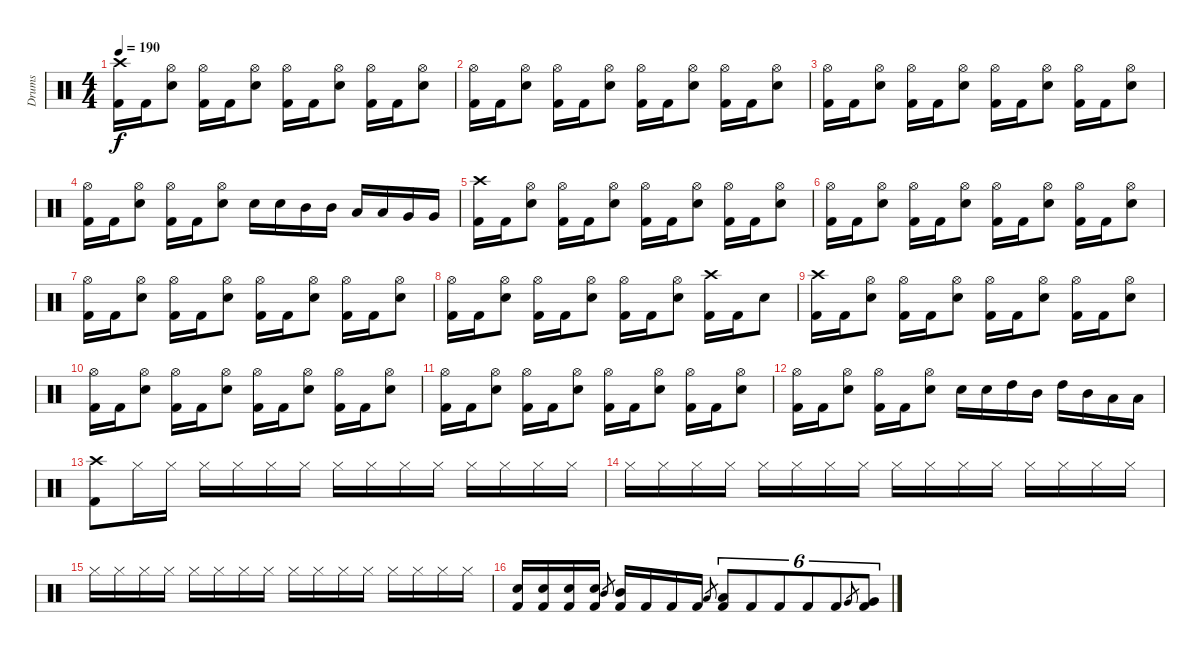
\track ("Drums" "Drums") {instrument percussion}
\staff {score}
\articulation defaults
\ts (4 4)
\tempo 190
\clef neutral
\ks c
("Crash high (hit)" "Kick (hit) 2").16{dy f} "Kick (hit) 2".16 ("Hi-Hat (open)" "Electric Snare (hit)").8 ("Hi-Hat (open)" "Kick (hit) 2").16 "Kick (hit) 2".16 ("Hi-Hat (open)" "Electric Snare (hit)").8 ("Hi-Hat (open)" "Kick (hit) 2").16 "Kick (hit) 2".16 ("Hi-Hat (open)" "Electric Snare (hit)").8 ("Hi-Hat (open)" "Kick (hit) 2").16 "Kick (hit) 2".16 ("Hi-Hat (open)" "Electric Snare (hit)").8 |
("Hi-Hat (open)" "Kick (hit) 2").16 "Kick (hit) 2".16 ("Hi-Hat (open)" "Electric Snare (hit)").8 ("Hi-Hat (open)" "Kick (hit) 2").16 "Kick (hit) 2".16 ("Hi-Hat (open)" "Electric Snare (hit)").8 ("Hi-Hat (open)" "Kick (hit) 2").16 "Kick (hit) 2".16 ("Hi-Hat (open)" "Electric Snare (hit)").8 ("Hi-Hat (open)" "Kick (hit) 2").16 "Kick (hit) 2".16 ("Hi-Hat (open)" "Electric Snare (hit)").8 |
("Hi-Hat (open)" "Kick (hit) 2").16 "Kick (hit) 2".16 ("Hi-Hat (open)" "Electric Snare (hit)").8 ("Hi-Hat (open)" "Kick (hit) 2").16 "Kick (hit) 2".16 ("Hi-Hat (open)" "Electric Snare (hit)").8 ("Hi-Hat (open)" "Kick (hit) 2").16 "Kick (hit) 2".16 ("Hi-Hat (open)" "Electric Snare (hit)").8 ("Hi-Hat (open)" "Kick (hit) 2").16 "Kick (hit) 2".16 ("Hi-Hat (open)" "Electric Snare (hit)").8 |
("Hi-Hat (open)" "Kick (hit) 2").16 "Kick (hit) 2".16 ("Hi-Hat (open)" "Electric Snare (hit)").8 ("Hi-Hat (open)" "Kick (hit) 2").16 "Kick (hit) 2".16 ("Hi-Hat (open)" "Electric Snare (hit)").8 "Electric Snare (hit)".16 "Electric Snare (hit)".16 "Mid Tom (hit)".16 "Mid Tom (hit)".16 "Low Tom (hit)".16 "Low Tom (hit)".16 "Very Low Tom (hit)".16 "Very Low Tom (hit)".16 |
("Crash high (hit)" "Kick (hit) 2").16 "Kick (hit) 2".16 ("Hi-Hat (open)" "Electric Snare (hit)").8 ("Hi-Hat (open)" "Kick (hit) 2").16 "Kick (hit) 2".16 ("Hi-Hat (open)" "Electric Snare (hit)").8 ("Hi-Hat (open)" "Kick (hit) 2").16 "Kick (hit) 2".16 ("Hi-Hat (open)" "Electric Snare (hit)").8 ("Hi-Hat (open)" "Kick (hit) 2").16 "Kick (hit) 2".16 ("Hi-Hat (open)" "Electric Snare (hit)").8 |
("Hi-Hat (open)" "Kick (hit) 2").16 "Kick (hit) 2".16 ("Hi-Hat (open)" "Electric Snare (hit)").8 ("Hi-Hat (open)" "Kick (hit) 2").16 "Kick (hit) 2".16 ("Hi-Hat (open)" "Electric Snare (hit)").8 ("Hi-Hat (open)" "Kick (hit) 2").16 "Kick (hit) 2".16 ("Hi-Hat (open)" "Electric Snare (hit)").8 ("Hi-Hat (open)" "Kick (hit) 2").16 "Kick (hit) 2".16 ("Hi-Hat (open)" "Electric Snare (hit)").8 |
("Hi-Hat (open)" "Kick (hit) 2").16 "Kick (hit) 2".16 ("Hi-Hat (open)" "Electric Snare (hit)").8 ("Hi-Hat (open)" "Kick (hit) 2").16 "Kick (hit) 2".16 ("Hi-Hat (open)" "Electric Snare (hit)").8 ("Hi-Hat (open)" "Kick (hit) 2").16 "Kick (hit) 2".16 ("Hi-Hat (open)" "Electric Snare (hit)").8 ("Hi-Hat (open)" "Kick (hit) 2").16 "Kick (hit) 2".16 ("Hi-Hat (open)" "Electric Snare (hit)").8 |
("Hi-Hat (open)" "Kick (hit) 2").16 "Kick (hit) 2".16 ("Hi-Hat (open)" "Electric Snare (hit)").8 ("Hi-Hat (open)" "Kick (hit) 2").16 "Kick (hit) 2".16 ("Hi-Hat (open)" "Electric Snare (hit)").8 ("Hi-Hat (open)" "Kick (hit) 2").16 "Kick (hit) 2".16 ("Hi-Hat (open)" "Electric Snare (hit)").8 ("Crash high (hit)" "Kick (hit) 2").16 "Kick (hit) 2".16 "Electric Snare (hit)".8 |
("Crash high (hit)" "Kick (hit) 2").16 "Kick (hit) 2".16 ("Hi-Hat (open)" "Electric Snare (hit)").8 ("Hi-Hat (open)" "Kick (hit) 2").16 "Kick (hit) 2".16 ("Hi-Hat (open)" "Electric Snare (hit)").8 ("Hi-Hat (open)" "Kick (hit) 2").16 "Kick (hit) 2".16 ("Hi-Hat (open)" "Electric Snare (hit)").8 ("Hi-Hat (open)" "Kick (hit) 2").16 "Kick (hit) 2".16 ("Hi-Hat (open)" "Electric Snare (hit)").8 |
("Hi-Hat (open)" "Kick (hit) 2").16 "Kick (hit) 2".16 ("Hi-Hat (open)" "Electric Snare (hit)").8 ("Hi-Hat (open)" "Kick (hit) 2").16 "Kick (hit) 2".16 ("Hi-Hat (open)" "Electric Snare (hit)").8 ("Hi-Hat (open)" "Kick (hit) 2").16 "Kick (hit) 2".16 ("Hi-Hat (open)" "Electric Snare (hit)").8 ("Hi-Hat (open)" "Kick (hit) 2").16 "Kick (hit) 2".16 ("Hi-Hat (open)" "Electric Snare (hit)").8 |
("Hi-Hat (open)" "Kick (hit) 2").16 "Kick (hit) 2".16 ("Hi-Hat (open)" "Electric Snare (hit)").8 ("Hi-Hat (open)" "Kick (hit) 2").16 "Kick (hit) 2".16 ("Hi-Hat (open)" "Electric Snare (hit)").8 ("Hi-Hat (open)" "Kick (hit) 2").16 "Kick (hit) 2".16 ("Hi-Hat (open)" "Electric Snare (hit)").8 ("Hi-Hat (open)" "Kick (hit) 2").16 "Kick (hit) 2".16 ("Hi-Hat (open)" "Electric Snare (hit)").8 |
("Hi-Hat (open)" "Kick (hit) 2").16 "Kick (hit) 2".16 ("Hi-Hat (open)" "Electric Snare (hit)").8 ("Hi-Hat (open)" "Kick (hit) 2").16 "Kick (hit) 2".16 ("Hi-Hat (open)" "Electric Snare (hit)").8 "Electric Snare (hit)".16 "Electric Snare (hit)".16 "High Tom (hit)".16 "Mid Tom (hit)".16 "High Tom (hit)".16 "Mid Tom (hit)".16 "Low Tom (hit)".16 "Low Tom (hit)".16 |
("Crash high (hit)" "Kick (hit) 2").8 "Hi-Hat (closed)".16 "Hi-Hat (closed)".16 "Hi-Hat (closed)".16 "Hi-Hat (closed)".16 "Hi-Hat (closed)".16 "Hi-Hat (closed)".16 "Hi-Hat (closed)".16 "Hi-Hat (closed)".16 "Hi-Hat (closed)".16 "Hi-Hat (closed)".16 "Hi-Hat (closed)".16 "Hi-Hat (closed)".16 "Hi-Hat (closed)".16 "Hi-Hat (closed)".16 |
"Hi-Hat (closed)".16 "Hi-Hat (closed)".16 "Hi-Hat (closed)".16 "Hi-Hat (closed)".16 "Hi-Hat (closed)".16 "Hi-Hat (closed)".16 "Hi-Hat (closed)".16 "Hi-Hat (closed)".16 "Hi-Hat (closed)".16 "Hi-Hat (closed)".16 "Hi-Hat (closed)".16 "Hi-Hat (closed)".16 "Hi-Hat (closed)".16 "Hi-Hat (closed)".16 "Hi-Hat (closed)".16 "Hi-Hat (closed)".16 |
"Hi-Hat (closed)".16 "Hi-Hat (closed)".16 "Hi-Hat (closed)".16 "Hi-Hat (closed)".16 "Hi-Hat (closed)".16 "Hi-Hat (closed)".16 "Hi-Hat (closed)".16 "Hi-Hat (closed)".16 "Hi-Hat (closed)".16 "Hi-Hat (closed)".16 "Hi-Hat (closed)".16 "Hi-Hat (closed)".16 "Hi-Hat (closed)".16 "Hi-Hat (closed)".16 "Hi-Hat (closed)".16 "Hi-Hat (closed)".16 |
("Electric Snare (hit)" "Kick (hit) 2").16 ("Electric Snare (hit)" "Kick (hit) 2").16 ("Electric Snare (hit)" "Kick (hit) 2").16 ("Electric Snare (hit)" "Kick (hit) 2").16 "Mid Tom (hit)".8{gr} ("Mid Tom (hit)" "Kick (hit) 2").16 "Kick (hit) 2".16 "Kick (hit) 2".16 "Kick (hit) 2".16 "Low Tom (hit)".8{gr} ("Low Tom (hit)" "Kick (hit) 2").8{tu (6 4)} "Kick (hit) 2".8{tu (6 4)} "Kick (hit) 2".8{tu (6 4)} "Kick (hit) 2".8{tu (6 4)} "Kick (hit) 2".8{tu (6 4)} "Very Low Tom (hit)".8{gr} ("Very Low Tom (hit)" "Kick (hit) 2").8{tu (6 4)}
